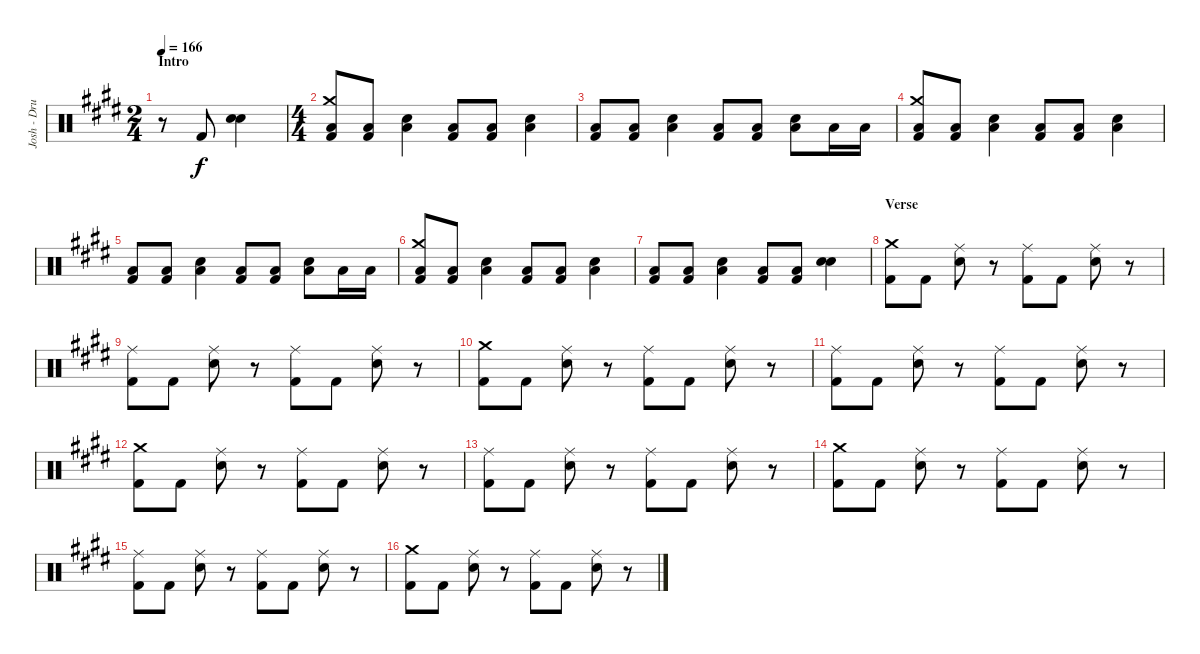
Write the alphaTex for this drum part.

\track ("Josh - Drums" "Josh - Dru") {instrument percussion}
\staff {score}
\articulation defaults
\ts (2 4)
\section ("" "Intro")
\tempo 166
\clef neutral
\ks e
r.8{dy f} "Kick (hit) 2".8 ("Electric Snare (hit)" "Electric Snare (hit)").4 |
\ts (4 4)
("Crash medium (hit)" "Low Floor Tom (hit)" "Kick (hit) 2").8 ("Low Floor Tom (hit)" "Kick (hit) 2").8 ("Low Floor Tom (hit)" "Electric Snare (hit)").4 ("Low Floor Tom (hit)" "Kick (hit) 2").8 ("Low Floor Tom (hit)" "Kick (hit) 2").8 ("Low Floor Tom (hit)" "Electric Snare (hit)").4 |
("Low Floor Tom (hit)" "Kick (hit) 2").8 ("Low Floor Tom (hit)" "Kick (hit) 2").8 ("Low Floor Tom (hit)" "Electric Snare (hit)").4 ("Low Floor Tom (hit)" "Kick (hit) 2").8 ("Low Floor Tom (hit)" "Kick (hit) 2").8 ("Low Floor Tom (hit)" "Electric Snare (hit)").8 "Low Floor Tom (hit)".16 "Low Floor Tom (hit)".16 |
("Crash medium (hit)" "Low Floor Tom (hit)" "Kick (hit) 2").8 ("Low Floor Tom (hit)" "Kick (hit) 2").8 ("Low Floor Tom (hit)" "Electric Snare (hit)").4 ("Low Floor Tom (hit)" "Kick (hit) 2").8 ("Low Floor Tom (hit)" "Kick (hit) 2").8 ("Low Floor Tom (hit)" "Electric Snare (hit)").4 |
("Low Floor Tom (hit)" "Kick (hit) 2").8 ("Low Floor Tom (hit)" "Kick (hit) 2").8 ("Low Floor Tom (hit)" "Electric Snare (hit)").4 ("Low Floor Tom (hit)" "Kick (hit) 2").8 ("Low Floor Tom (hit)" "Kick (hit) 2").8 ("Low Floor Tom (hit)" "Electric Snare (hit)").8 "Low Floor Tom (hit)".16 "Low Floor Tom (hit)".16 |
("Crash medium (hit)" "Low Floor Tom (hit)" "Kick (hit) 2").8 ("Low Floor Tom (hit)" "Kick (hit) 2").8 ("Low Floor Tom (hit)" "Electric Snare (hit)").4 ("Low Floor Tom (hit)" "Kick (hit) 2").8 ("Low Floor Tom (hit)" "Kick (hit) 2").8 ("Low Floor Tom (hit)" "Electric Snare (hit)").4 |
("Low Floor Tom (hit)" "Kick (hit) 2").8 ("Low Floor Tom (hit)" "Kick (hit) 2").8 ("Low Floor Tom (hit)" "Electric Snare (hit)").4 ("Low Floor Tom (hit)" "Kick (hit) 2").8 ("Low Floor Tom (hit)" "Kick (hit) 2").8 ("Electric Snare (hit)" "Electric Snare (hit)").4 |
\section ("" "Verse")
("Crash medium (hit)" "Kick (hit) 2").8 "Kick (hit) 2".8 ("Ride (middle)" "Electric Snare (hit)").8 r.8 ("Ride (middle)" "Kick (hit) 2").8 "Kick (hit) 2".8 ("Ride (middle)" "Electric Snare (hit)").8 r.8 |
("Ride (middle)" "Kick (hit) 2").8 "Kick (hit) 2".8 ("Ride (middle)" "Electric Snare (hit)").8 r.8 ("Ride (middle)" "Kick (hit) 2").8 "Kick (hit) 2".8 ("Ride (middle)" "Electric Snare (hit)").8 r.8 |
("Crash medium (hit)" "Kick (hit) 2").8 "Kick (hit) 2".8 ("Ride (middle)" "Electric Snare (hit)").8 r.8 ("Ride (middle)" "Kick (hit) 2").8 "Kick (hit) 2".8 ("Ride (middle)" "Electric Snare (hit)").8 r.8 |
("Ride (middle)" "Kick (hit) 2").8 "Kick (hit) 2".8 ("Ride (middle)" "Electric Snare (hit)").8 r.8 ("Ride (middle)" "Kick (hit) 2").8 "Kick (hit) 2".8 ("Ride (middle)" "Electric Snare (hit)").8 r.8 |
("Crash medium (hit)" "Kick (hit) 2").8 "Kick (hit) 2".8 ("Ride (middle)" "Electric Snare (hit)").8 r.8 ("Ride (middle)" "Kick (hit) 2").8 "Kick (hit) 2".8 ("Ride (middle)" "Electric Snare (hit)").8 r.8 |
("Ride (middle)" "Kick (hit) 2").8 "Kick (hit) 2".8 ("Ride (middle)" "Electric Snare (hit)").8 r.8 ("Ride (middle)" "Kick (hit) 2").8 "Kick (hit) 2".8 ("Ride (middle)" "Electric Snare (hit)").8 r.8 |
("Crash medium (hit)" "Kick (hit) 2").8 "Kick (hit) 2".8 ("Ride (middle)" "Electric Snare (hit)").8 r.8 ("Ride (middle)" "Kick (hit) 2").8 "Kick (hit) 2".8 ("Ride (middle)" "Electric Snare (hit)").8 r.8 |
("Ride (middle)" "Kick (hit) 2").8 "Kick (hit) 2".8 ("Ride (middle)" "Electric Snare (hit)").8 r.8 ("Ride (middle)" "Kick (hit) 2").8 "Kick (hit) 2".8 ("Ride (middle)" "Electric Snare (hit)").8 r.8 |
("Crash medium (hit)" "Kick (hit) 2").8 "Kick (hit) 2".8 ("Ride (middle)" "Electric Snare (hit)").8 r.8 ("Ride (middle)" "Kick (hit) 2").8 "Kick (hit) 2".8 ("Ride (middle)" "Electric Snare (hit)").8 r.8
